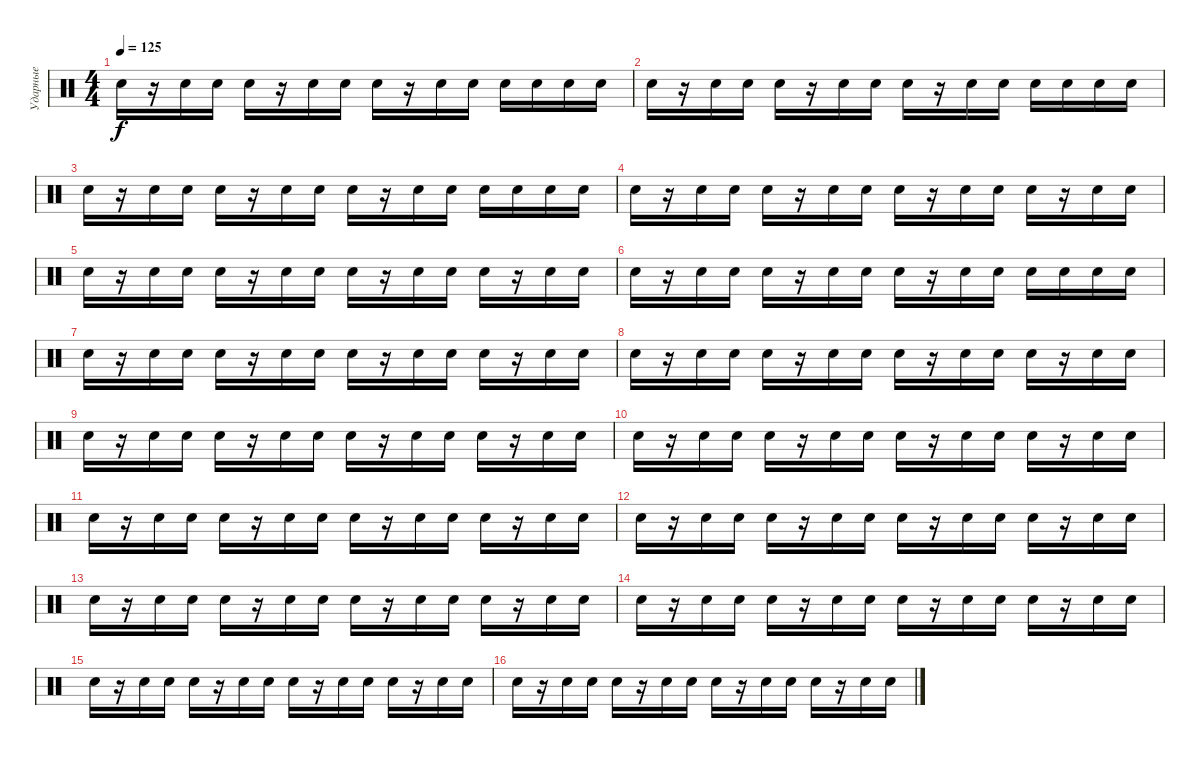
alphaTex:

\track ("Ударные" "Ударные") {instrument percussion}
\staff {score}
\articulation defaults
\ts (4 4)
\tempo 125
\clef neutral
\ks c "Electric Snare (hit)".16{dy f}
r.16 "Electric Snare (hit)".16 "Electric Snare (hit)".16 "Electric Snare (hit)".16 r.16 "Electric Snare (hit)".16 "Electric Snare (hit)".16 "Electric Snare (hit)".16 r.16 "Electric Snare (hit)".16 "Electric Snare (hit)".16 "Electric Snare (hit)".16 "Electric Snare (hit)".16 "Electric Snare (hit)".16 "Electric Snare (hit)".16 |
"Electric Snare (hit)".16 r.16 "Electric Snare (hit)".16 "Electric Snare (hit)".16 "Electric Snare (hit)".16 r.16 "Electric Snare (hit)".16 "Electric Snare (hit)".16 "Electric Snare (hit)".16 r.16 "Electric Snare (hit)".16 "Electric Snare (hit)".16 "Electric Snare (hit)".16 "Electric Snare (hit)".16 "Electric Snare (hit)".16 "Electric Snare (hit)".16 |
"Electric Snare (hit)".16 r.16 "Electric Snare (hit)".16 "Electric Snare (hit)".16 "Electric Snare (hit)".16 r.16 "Electric Snare (hit)".16 "Electric Snare (hit)".16 "Electric Snare (hit)".16 r.16 "Electric Snare (hit)".16 "Electric Snare (hit)".16 "Electric Snare (hit)".16 "Electric Snare (hit)".16 "Electric Snare (hit)".16 "Electric Snare (hit)".16 |
"Electric Snare (hit)".16 r.16 "Electric Snare (hit)".16 "Electric Snare (hit)".16 "Electric Snare (hit)".16 r.16 "Electric Snare (hit)".16 "Electric Snare (hit)".16 "Electric Snare (hit)".16 r.16 "Electric Snare (hit)".16 "Electric Snare (hit)".16 "Electric Snare (hit)".16 r.16 "Electric Snare (hit)".16 "Electric Snare (hit)".16 |
"Electric Snare (hit)".16 r.16 "Electric Snare (hit)".16 "Electric Snare (hit)".16 "Electric Snare (hit)".16 r.16 "Electric Snare (hit)".16 "Electric Snare (hit)".16 "Electric Snare (hit)".16 r.16 "Electric Snare (hit)".16 "Electric Snare (hit)".16 "Electric Snare (hit)".16 r.16 "Electric Snare (hit)".16 "Electric Snare (hit)".16 |
"Electric Snare (hit)".16 r.16 "Electric Snare (hit)".16 "Electric Snare (hit)".16 "Electric Snare (hit)".16 r.16 "Electric Snare (hit)".16 "Electric Snare (hit)".16 "Electric Snare (hit)".16 r.16 "Electric Snare (hit)".16 "Electric Snare (hit)".16 "Electric Snare (hit)".16 "Electric Snare (hit)".16 "Electric Snare (hit)".16 "Electric Snare (hit)".16 |
"Electric Snare (hit)".16 r.16 "Electric Snare (hit)".16 "Electric Snare (hit)".16 "Electric Snare (hit)".16 r.16 "Electric Snare (hit)".16 "Electric Snare (hit)".16 "Electric Snare (hit)".16 r.16 "Electric Snare (hit)".16 "Electric Snare (hit)".16 "Electric Snare (hit)".16 r.16 "Electric Snare (hit)".16 "Electric Snare (hit)".16 |
"Electric Snare (hit)".16 r.16 "Electric Snare (hit)".16 "Electric Snare (hit)".16 "Electric Snare (hit)".16 r.16 "Electric Snare (hit)".16 "Electric Snare (hit)".16 "Electric Snare (hit)".16 r.16 "Electric Snare (hit)".16 "Electric Snare (hit)".16 "Electric Snare (hit)".16 r.16 "Electric Snare (hit)".16 "Electric Snare (hit)".16 |
"Electric Snare (hit)".16 r.16 "Electric Snare (hit)".16 "Electric Snare (hit)".16 "Electric Snare (hit)".16 r.16 "Electric Snare (hit)".16 "Electric Snare (hit)".16 "Electric Snare (hit)".16 r.16 "Electric Snare (hit)".16 "Electric Snare (hit)".16 "Electric Snare (hit)".16 r.16 "Electric Snare (hit)".16 "Electric Snare (hit)".16 |
"Electric Snare (hit)".16 r.16 "Electric Snare (hit)".16 "Electric Snare (hit)".16 "Electric Snare (hit)".16 r.16 "Electric Snare (hit)".16 "Electric Snare (hit)".16 "Electric Snare (hit)".16 r.16 "Electric Snare (hit)".16 "Electric Snare (hit)".16 "Electric Snare (hit)".16 r.16 "Electric Snare (hit)".16 "Electric Snare (hit)".16 |
"Electric Snare (hit)".16 r.16 "Electric Snare (hit)".16 "Electric Snare (hit)".16 "Electric Snare (hit)".16 r.16 "Electric Snare (hit)".16 "Electric Snare (hit)".16 "Electric Snare (hit)".16 r.16 "Electric Snare (hit)".16 "Electric Snare (hit)".16 "Electric Snare (hit)".16 r.16 "Electric Snare (hit)".16 "Electric Snare (hit)".16 |
"Electric Snare (hit)".16 r.16 "Electric Snare (hit)".16 "Electric Snare (hit)".16 "Electric Snare (hit)".16 r.16 "Electric Snare (hit)".16 "Electric Snare (hit)".16 "Electric Snare (hit)".16 r.16 "Electric Snare (hit)".16 "Electric Snare (hit)".16 "Electric Snare (hit)".16 r.16 "Electric Snare (hit)".16 "Electric Snare (hit)".16 |
"Electric Snare (hit)".16 r.16 "Electric Snare (hit)".16 "Electric Snare (hit)".16 "Electric Snare (hit)".16 r.16 "Electric Snare (hit)".16 "Electric Snare (hit)".16 "Electric Snare (hit)".16 r.16 "Electric Snare (hit)".16 "Electric Snare (hit)".16 "Electric Snare (hit)".16 r.16 "Electric Snare (hit)".16 "Electric Snare (hit)".16 |
"Electric Snare (hit)".16 r.16 "Electric Snare (hit)".16 "Electric Snare (hit)".16 "Electric Snare (hit)".16 r.16 "Electric Snare (hit)".16 "Electric Snare (hit)".16 "Electric Snare (hit)".16 r.16 "Electric Snare (hit)".16 "Electric Snare (hit)".16 "Electric Snare (hit)".16 r.16 "Electric Snare (hit)".16 "Electric Snare (hit)".16 |
"Electric Snare (hit)".16 r.16 "Electric Snare (hit)".16 "Electric Snare (hit)".16 "Electric Snare (hit)".16 r.16 "Electric Snare (hit)".16 "Electric Snare (hit)".16 "Electric Snare (hit)".16 r.16 "Electric Snare (hit)".16 "Electric Snare (hit)".16 "Electric Snare (hit)".16 r.16 "Electric Snare (hit)".16 "Electric Snare (hit)".16 |
"Electric Snare (hit)".16 r.16 "Electric Snare (hit)".16 "Electric Snare (hit)".16 "Electric Snare (hit)".16 r.16 "Electric Snare (hit)".16 "Electric Snare (hit)".16 "Electric Snare (hit)".16 r.16 "Electric Snare (hit)".16 "Electric Snare (hit)".16 "Electric Snare (hit)".16 r.16 "Electric Snare (hit)".16 "Electric Snare (hit)".16
